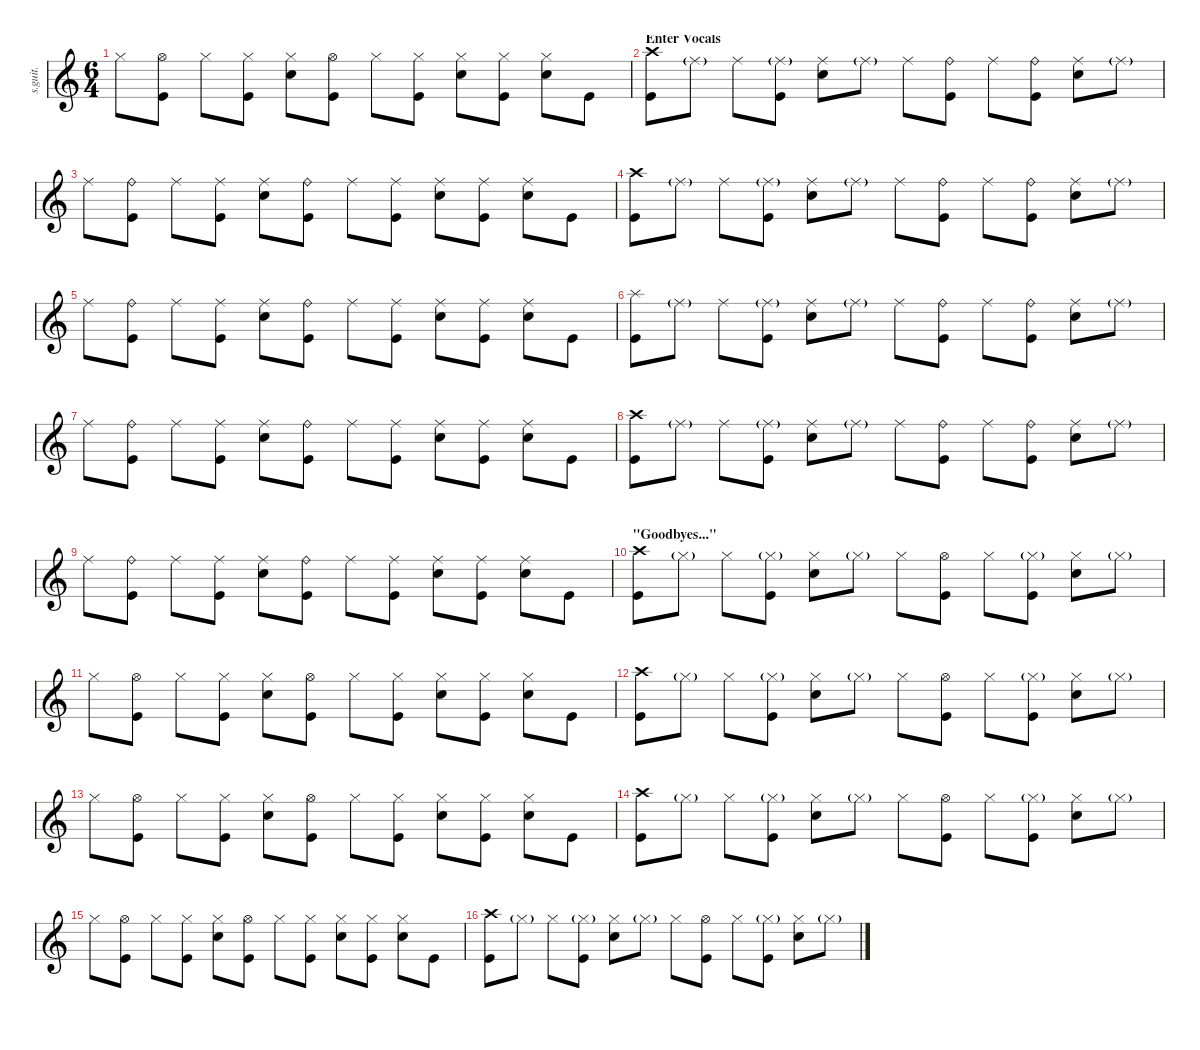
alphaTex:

\defaultSystemsLayout 4
\hideDynamics
\bracketExtendMode nobrackets
\track ("Steve Lamos" "s.guit.") {instrument percussion}
\staff {score}
\articulation defaults
\ts (6 4)
\tempo (144 hide)
\clef g2
\ks c "Hi-Hat (closed)".8{lyrics (0 "") lyrics (1 "") lyrics (2 "") lyrics (3 "") lyrics (4 "") dy mf}
("Hi-Hat (open)" "Kick (hit)").8{lyrics (0 "") lyrics (1 "") lyrics (2 "") lyrics (3 "") lyrics (4 "")} "Hi-Hat (closed)".8{lyrics (0 "") lyrics (1 "") lyrics (2 "") lyrics (3 "") lyrics (4 "")} ("Hi-Hat (closed)" "Kick (hit)").8{lyrics (0 "") lyrics (1 "") lyrics (2 "") lyrics (3 "") lyrics (4 "")} ("Hi-Hat (closed)" "Snare (hit) 2").8{lyrics (0 "") lyrics (1 "") lyrics (2 "") lyrics (3 "") lyrics (4 "")} ("Hi-Hat (open)" "Kick (hit)").8{lyrics (0 "") lyrics (1 "") lyrics (2 "") lyrics (3 "") lyrics (4 "")} "Hi-Hat (closed)".8{lyrics (0 "") lyrics (1 "") lyrics (2 "") lyrics (3 "") lyrics (4 "")} ("Hi-Hat (closed)" "Kick (hit)").8{lyrics (0 "") lyrics (1 "") lyrics (2 "") lyrics (3 "") lyrics (4 "")} ("Hi-Hat (closed)" "Snare (hit) 2").8{lyrics (0 "") lyrics (1 "") lyrics (2 "") lyrics (3 "") lyrics (4 "")} ("Hi-Hat (closed)" "Kick (hit)").8{lyrics (0 "") lyrics (1 "") lyrics (2 "") lyrics (3 "") lyrics (4 "") dy f} ("Hi-Hat (closed)" "Snare (hit) 2").8{lyrics (0 "") lyrics (1 "") lyrics (2 "") lyrics (3 "") lyrics (4 "")} "Kick (hit)".8{lyrics (0 "") lyrics (1 "") lyrics (2 "") lyrics (3 "") lyrics (4 "")} |
\section ("" "Enter Vocals")
("Crash high (hit)" "Kick (hit)").8{lyrics (0 "") lyrics (1 "") lyrics (2 "") lyrics (3 "") lyrics (4 "") dy mf} "Ride (middle)"{g}.8{lyrics (0 "") lyrics (1 "") lyrics (2 "") lyrics (3 "") lyrics (4 "") dy ff} "Ride (middle)".8{lyrics (0 "") lyrics (1 "") lyrics (2 "") lyrics (3 "") lyrics (4 "") dy mf} ("Ride (middle)"{g} "Kick (hit)").8{lyrics (0 "") lyrics (1 "") lyrics (2 "") lyrics (3 "") lyrics (4 "")} ("Ride (middle)" "Snare (hit) 2").8{lyrics (0 "") lyrics (1 "") lyrics (2 "") lyrics (3 "") lyrics (4 "")} "Ride (middle)"{g}.8{lyrics (0 "") lyrics (1 "") lyrics (2 "") lyrics (3 "") lyrics (4 "") dy ff} "Ride (middle)".8{lyrics (0 "") lyrics (1 "") lyrics (2 "") lyrics (3 "") lyrics (4 "") dy mf} ("Ride (bell)" "Kick (hit)").8{lyrics (0 "") lyrics (1 "") lyrics (2 "") lyrics (3 "") lyrics (4 "")} "Ride (middle)".8{lyrics (0 "") lyrics (1 "") lyrics (2 "") lyrics (3 "") lyrics (4 "")} ("Ride (bell)" "Kick (hit)").8{lyrics (0 "") lyrics (1 "") lyrics (2 "") lyrics (3 "") lyrics (4 "") dy f} ("Ride (middle)" "Snare (hit) 2").8{lyrics (0 "") lyrics (1 "") lyrics (2 "") lyrics (3 "") lyrics (4 "") dy mf} "Ride (middle)"{g}.8{lyrics (0 "") lyrics (1 "") lyrics (2 "") lyrics (3 "") lyrics (4 "") dy ff} |
"Ride (middle)".8{lyrics (0 "") lyrics (1 "") lyrics (2 "") lyrics (3 "") lyrics (4 "") dy mf} ("Ride (bell)" "Kick (hit)").8{lyrics (0 "") lyrics (1 "") lyrics (2 "") lyrics (3 "") lyrics (4 "")} "Ride (middle)".8{lyrics (0 "") lyrics (1 "") lyrics (2 "") lyrics (3 "") lyrics (4 "")} ("Ride (middle)" "Kick (hit)").8{lyrics (0 "") lyrics (1 "") lyrics (2 "") lyrics (3 "") lyrics (4 "")} ("Ride (middle)" "Snare (hit) 2").8{lyrics (0 "") lyrics (1 "") lyrics (2 "") lyrics (3 "") lyrics (4 "")} ("Ride (bell)" "Kick (hit)").8{lyrics (0 "") lyrics (1 "") lyrics (2 "") lyrics (3 "") lyrics (4 "") dy f} "Ride (middle)".8{lyrics (0 "") lyrics (1 "") lyrics (2 "") lyrics (3 "") lyrics (4 "") dy mf} ("Ride (middle)" "Kick (hit)").8{lyrics (0 "") lyrics (1 "") lyrics (2 "") lyrics (3 "") lyrics (4 "")} ("Ride (middle)" "Snare (hit) 2").8{lyrics (0 "") lyrics (1 "") lyrics (2 "") lyrics (3 "") lyrics (4 "")} ("Ride (middle)" "Kick (hit)").8{lyrics (0 "") lyrics (1 "") lyrics (2 "") lyrics (3 "") lyrics (4 "") dy f} ("Ride (middle)" "Snare (hit) 2").8{lyrics (0 "") lyrics (1 "") lyrics (2 "") lyrics (3 "") lyrics (4 "")} "Kick (hit)".8{lyrics (0 "") lyrics (1 "") lyrics (2 "") lyrics (3 "") lyrics (4 "")} |
("Crash high (hit)" "Kick (hit)").8{lyrics (0 "") lyrics (1 "") lyrics (2 "") lyrics (3 "") lyrics (4 "") dy mf} "Ride (middle)"{g}.8{lyrics (0 "") lyrics (1 "") lyrics (2 "") lyrics (3 "") lyrics (4 "") dy ff} "Ride (middle)".8{lyrics (0 "") lyrics (1 "") lyrics (2 "") lyrics (3 "") lyrics (4 "") dy mf} ("Ride (middle)"{g} "Kick (hit)").8{lyrics (0 "") lyrics (1 "") lyrics (2 "") lyrics (3 "") lyrics (4 "")} ("Ride (middle)" "Snare (hit) 2").8{lyrics (0 "") lyrics (1 "") lyrics (2 "") lyrics (3 "") lyrics (4 "")} "Ride (middle)"{g}.8{lyrics (0 "") lyrics (1 "") lyrics (2 "") lyrics (3 "") lyrics (4 "") dy ff} "Ride (middle)".8{lyrics (0 "") lyrics (1 "") lyrics (2 "") lyrics (3 "") lyrics (4 "") dy mf} ("Ride (bell)" "Kick (hit)").8{lyrics (0 "") lyrics (1 "") lyrics (2 "") lyrics (3 "") lyrics (4 "")} "Ride (middle)".8{lyrics (0 "") lyrics (1 "") lyrics (2 "") lyrics (3 "") lyrics (4 "")} ("Ride (bell)" "Kick (hit)").8{lyrics (0 "") lyrics (1 "") lyrics (2 "") lyrics (3 "") lyrics (4 "") dy f} ("Ride (middle)" "Snare (hit) 2").8{lyrics (0 "") lyrics (1 "") lyrics (2 "") lyrics (3 "") lyrics (4 "") dy mf} "Ride (middle)"{g}.8{lyrics (0 "") lyrics (1 "") lyrics (2 "") lyrics (3 "") lyrics (4 "") dy ff} |
"Ride (middle)".8{lyrics (0 "") lyrics (1 "") lyrics (2 "") lyrics (3 "") lyrics (4 "") dy mf} ("Ride (bell)" "Kick (hit)").8{lyrics (0 "") lyrics (1 "") lyrics (2 "") lyrics (3 "") lyrics (4 "")} "Ride (middle)".8{lyrics (0 "") lyrics (1 "") lyrics (2 "") lyrics (3 "") lyrics (4 "")} ("Ride (middle)" "Kick (hit)").8{lyrics (0 "") lyrics (1 "") lyrics (2 "") lyrics (3 "") lyrics (4 "")} ("Ride (middle)" "Snare (hit) 2").8{lyrics (0 "") lyrics (1 "") lyrics (2 "") lyrics (3 "") lyrics (4 "")} ("Ride (bell)" "Kick (hit)").8{lyrics (0 "") lyrics (1 "") lyrics (2 "") lyrics (3 "") lyrics (4 "") dy f} "Ride (middle)".8{lyrics (0 "") lyrics (1 "") lyrics (2 "") lyrics (3 "") lyrics (4 "") dy mf} ("Ride (middle)" "Kick (hit)").8{lyrics (0 "") lyrics (1 "") lyrics (2 "") lyrics (3 "") lyrics (4 "")} ("Ride (middle)" "Snare (hit) 2").8{lyrics (0 "") lyrics (1 "") lyrics (2 "") lyrics (3 "") lyrics (4 "")} ("Ride (middle)" "Kick (hit)").8{lyrics (0 "") lyrics (1 "") lyrics (2 "") lyrics (3 "") lyrics (4 "") dy f} ("Ride (middle)" "Snare (hit) 2").8{lyrics (0 "") lyrics (1 "") lyrics (2 "") lyrics (3 "") lyrics (4 "")} "Kick (hit)".8{lyrics (0 "") lyrics (1 "") lyrics (2 "") lyrics (3 "") lyrics (4 "")} |
("Splash (hit)" "Kick (hit)").8{lyrics (0 "") lyrics (1 "") lyrics (2 "") lyrics (3 "") lyrics (4 "") dy mf} "Ride (middle)"{g}.8{lyrics (0 "") lyrics (1 "") lyrics (2 "") lyrics (3 "") lyrics (4 "") dy ff} "Ride (middle)".8{lyrics (0 "") lyrics (1 "") lyrics (2 "") lyrics (3 "") lyrics (4 "") dy mf} ("Ride (middle)"{g} "Kick (hit)").8{lyrics (0 "") lyrics (1 "") lyrics (2 "") lyrics (3 "") lyrics (4 "")} ("Ride (middle)" "Snare (hit) 2").8{lyrics (0 "") lyrics (1 "") lyrics (2 "") lyrics (3 "") lyrics (4 "")} "Ride (middle)"{g}.8{lyrics (0 "") lyrics (1 "") lyrics (2 "") lyrics (3 "") lyrics (4 "") dy ff} "Ride (middle)".8{lyrics (0 "") lyrics (1 "") lyrics (2 "") lyrics (3 "") lyrics (4 "") dy mf} ("Ride (bell)" "Kick (hit)").8{lyrics (0 "") lyrics (1 "") lyrics (2 "") lyrics (3 "") lyrics (4 "")} "Ride (middle)".8{lyrics (0 "") lyrics (1 "") lyrics (2 "") lyrics (3 "") lyrics (4 "")} ("Ride (bell)" "Kick (hit)").8{lyrics (0 "") lyrics (1 "") lyrics (2 "") lyrics (3 "") lyrics (4 "") dy f} ("Ride (middle)" "Snare (hit) 2").8{lyrics (0 "") lyrics (1 "") lyrics (2 "") lyrics (3 "") lyrics (4 "") dy mf} "Ride (middle)"{g}.8{lyrics (0 "") lyrics (1 "") lyrics (2 "") lyrics (3 "") lyrics (4 "") dy ff} |
"Ride (middle)".8{lyrics (0 "") lyrics (1 "") lyrics (2 "") lyrics (3 "") lyrics (4 "") dy mf} ("Ride (bell)" "Kick (hit)").8{lyrics (0 "") lyrics (1 "") lyrics (2 "") lyrics (3 "") lyrics (4 "")} "Ride (middle)".8{lyrics (0 "") lyrics (1 "") lyrics (2 "") lyrics (3 "") lyrics (4 "")} ("Ride (middle)" "Kick (hit)").8{lyrics (0 "") lyrics (1 "") lyrics (2 "") lyrics (3 "") lyrics (4 "")} ("Ride (middle)" "Snare (hit) 2").8{lyrics (0 "") lyrics (1 "") lyrics (2 "") lyrics (3 "") lyrics (4 "")} ("Ride (bell)" "Kick (hit)").8{lyrics (0 "") lyrics (1 "") lyrics (2 "") lyrics (3 "") lyrics (4 "") dy f} "Ride (middle)".8{lyrics (0 "") lyrics (1 "") lyrics (2 "") lyrics (3 "") lyrics (4 "") dy mf} ("Ride (middle)" "Kick (hit)").8{lyrics (0 "") lyrics (1 "") lyrics (2 "") lyrics (3 "") lyrics (4 "")} ("Ride (middle)" "Snare (hit) 2").8{lyrics (0 "") lyrics (1 "") lyrics (2 "") lyrics (3 "") lyrics (4 "")} ("Ride (middle)" "Kick (hit)").8{lyrics (0 "") lyrics (1 "") lyrics (2 "") lyrics (3 "") lyrics (4 "") dy f} ("Ride (middle)" "Snare (hit) 2").8{lyrics (0 "") lyrics (1 "") lyrics (2 "") lyrics (3 "") lyrics (4 "")} "Kick (hit)".8{lyrics (0 "") lyrics (1 "") lyrics (2 "") lyrics (3 "") lyrics (4 "")} |
("Crash high (hit)" "Kick (hit)").8{lyrics (0 "") lyrics (1 "") lyrics (2 "") lyrics (3 "") lyrics (4 "") dy mf} "Ride (middle)"{g}.8{lyrics (0 "") lyrics (1 "") lyrics (2 "") lyrics (3 "") lyrics (4 "") dy ff} "Ride (middle)".8{lyrics (0 "") lyrics (1 "") lyrics (2 "") lyrics (3 "") lyrics (4 "") dy mf} ("Ride (middle)"{g} "Kick (hit)").8{lyrics (0 "") lyrics (1 "") lyrics (2 "") lyrics (3 "") lyrics (4 "")} ("Ride (middle)" "Snare (hit) 2").8{lyrics (0 "") lyrics (1 "") lyrics (2 "") lyrics (3 "") lyrics (4 "")} "Ride (middle)"{g}.8{lyrics (0 "") lyrics (1 "") lyrics (2 "") lyrics (3 "") lyrics (4 "") dy ff} "Ride (middle)".8{lyrics (0 "") lyrics (1 "") lyrics (2 "") lyrics (3 "") lyrics (4 "") dy mf} ("Ride (bell)" "Kick (hit)").8{lyrics (0 "") lyrics (1 "") lyrics (2 "") lyrics (3 "") lyrics (4 "")} "Ride (middle)".8{lyrics (0 "") lyrics (1 "") lyrics (2 "") lyrics (3 "") lyrics (4 "")} ("Ride (bell)" "Kick (hit)").8{lyrics (0 "") lyrics (1 "") lyrics (2 "") lyrics (3 "") lyrics (4 "") dy f} ("Ride (middle)" "Snare (hit) 2").8{lyrics (0 "") lyrics (1 "") lyrics (2 "") lyrics (3 "") lyrics (4 "") dy mf} "Ride (middle)"{g}.8{lyrics (0 "") lyrics (1 "") lyrics (2 "") lyrics (3 "") lyrics (4 "") dy ff} |
"Ride (middle)".8{lyrics (0 "") lyrics (1 "") lyrics (2 "") lyrics (3 "") lyrics (4 "") dy mf} ("Ride (bell)" "Kick (hit)").8{lyrics (0 "") lyrics (1 "") lyrics (2 "") lyrics (3 "") lyrics (4 "")} "Ride (middle)".8{lyrics (0 "") lyrics (1 "") lyrics (2 "") lyrics (3 "") lyrics (4 "")} ("Ride (middle)" "Kick (hit)").8{lyrics (0 "") lyrics (1 "") lyrics (2 "") lyrics (3 "") lyrics (4 "")} ("Ride (middle)" "Snare (hit) 2").8{lyrics (0 "") lyrics (1 "") lyrics (2 "") lyrics (3 "") lyrics (4 "")} ("Ride (bell)" "Kick (hit)").8{lyrics (0 "") lyrics (1 "") lyrics (2 "") lyrics (3 "") lyrics (4 "") dy f} "Ride (middle)".8{lyrics (0 "") lyrics (1 "") lyrics (2 "") lyrics (3 "") lyrics (4 "") dy mf} ("Ride (middle)" "Kick (hit)").8{lyrics (0 "") lyrics (1 "") lyrics (2 "") lyrics (3 "") lyrics (4 "")} ("Ride (middle)" "Snare (hit) 2").8{lyrics (0 "") lyrics (1 "") lyrics (2 "") lyrics (3 "") lyrics (4 "")} ("Ride (middle)" "Kick (hit)").8{lyrics (0 "") lyrics (1 "") lyrics (2 "") lyrics (3 "") lyrics (4 "") dy f} ("Ride (middle)" "Snare (hit) 2").8{lyrics (0 "") lyrics (1 "") lyrics (2 "") lyrics (3 "") lyrics (4 "")} "Kick (hit)".8{lyrics (0 "") lyrics (1 "") lyrics (2 "") lyrics (3 "") lyrics (4 "")} |
\section ("" "\"Goodbyes...\"")
("Crash high (hit)" "Kick (hit)").8{lyrics (0 "") lyrics (1 "") lyrics (2 "") lyrics (3 "") lyrics (4 "") dy mf} "Hi-Hat (closed)"{g}.8{lyrics (0 "") lyrics (1 "") lyrics (2 "") lyrics (3 "") lyrics (4 "") dy ff} "Hi-Hat (closed)".8{lyrics (0 "") lyrics (1 "") lyrics (2 "") lyrics (3 "") lyrics (4 "") dy mf} ("Hi-Hat (closed)"{g} "Kick (hit)").8{lyrics (0 "") lyrics (1 "") lyrics (2 "") lyrics (3 "") lyrics (4 "")} ("Hi-Hat (closed)" "Snare (hit) 2").8{lyrics (0 "") lyrics (1 "") lyrics (2 "") lyrics (3 "") lyrics (4 "")} "Hi-Hat (closed)"{g}.8{lyrics (0 "") lyrics (1 "") lyrics (2 "") lyrics (3 "") lyrics (4 "") dy ff} "Hi-Hat (closed)".8{lyrics (0 "") lyrics (1 "") lyrics (2 "") lyrics (3 "") lyrics (4 "") dy mf} ("Hi-Hat (open)" "Kick (hit)").8{lyrics (0 "") lyrics (1 "") lyrics (2 "") lyrics (3 "") lyrics (4 "")} "Hi-Hat (closed)".8{lyrics (0 "") lyrics (1 "") lyrics (2 "") lyrics (3 "") lyrics (4 "")} ("Hi-Hat (closed)"{g} "Kick (hit)").8{lyrics (0 "") lyrics (1 "") lyrics (2 "") lyrics (3 "") lyrics (4 "")} ("Hi-Hat (closed)" "Snare (hit) 2").8{lyrics (0 "") lyrics (1 "") lyrics (2 "") lyrics (3 "") lyrics (4 "")} "Hi-Hat (closed)"{g}.8{lyrics (0 "") lyrics (1 "") lyrics (2 "") lyrics (3 "") lyrics (4 "") dy ff} |
"Hi-Hat (closed)".8{lyrics (0 "") lyrics (1 "") lyrics (2 "") lyrics (3 "") lyrics (4 "") dy mf} ("Hi-Hat (open)" "Kick (hit)").8{lyrics (0 "") lyrics (1 "") lyrics (2 "") lyrics (3 "") lyrics (4 "")} "Hi-Hat (closed)".8{lyrics (0 "") lyrics (1 "") lyrics (2 "") lyrics (3 "") lyrics (4 "")} ("Hi-Hat (closed)" "Kick (hit)").8{lyrics (0 "") lyrics (1 "") lyrics (2 "") lyrics (3 "") lyrics (4 "")} ("Hi-Hat (closed)" "Snare (hit) 2").8{lyrics (0 "") lyrics (1 "") lyrics (2 "") lyrics (3 "") lyrics (4 "")} ("Hi-Hat (open)" "Kick (hit)").8{lyrics (0 "") lyrics (1 "") lyrics (2 "") lyrics (3 "") lyrics (4 "")} "Hi-Hat (closed)".8{lyrics (0 "") lyrics (1 "") lyrics (2 "") lyrics (3 "") lyrics (4 "")} ("Hi-Hat (closed)" "Kick (hit)").8{lyrics (0 "") lyrics (1 "") lyrics (2 "") lyrics (3 "") lyrics (4 "")} ("Hi-Hat (closed)" "Snare (hit) 2").8{lyrics (0 "") lyrics (1 "") lyrics (2 "") lyrics (3 "") lyrics (4 "")} ("Hi-Hat (closed)" "Kick (hit)").8{lyrics (0 "") lyrics (1 "") lyrics (2 "") lyrics (3 "") lyrics (4 "") dy f} ("Hi-Hat (closed)" "Snare (hit) 2").8{lyrics (0 "") lyrics (1 "") lyrics (2 "") lyrics (3 "") lyrics (4 "")} "Kick (hit)".8{lyrics (0 "") lyrics (1 "") lyrics (2 "") lyrics (3 "") lyrics (4 "")} |
("Crash high (hit)" "Kick (hit)").8{lyrics (0 "") lyrics (1 "") lyrics (2 "") lyrics (3 "") lyrics (4 "") dy mf} "Hi-Hat (closed)"{g}.8{lyrics (0 "") lyrics (1 "") lyrics (2 "") lyrics (3 "") lyrics (4 "") dy ff} "Hi-Hat (closed)".8{lyrics (0 "") lyrics (1 "") lyrics (2 "") lyrics (3 "") lyrics (4 "") dy mf} ("Hi-Hat (closed)"{g} "Kick (hit)").8{lyrics (0 "") lyrics (1 "") lyrics (2 "") lyrics (3 "") lyrics (4 "")} ("Hi-Hat (closed)" "Snare (hit) 2").8{lyrics (0 "") lyrics (1 "") lyrics (2 "") lyrics (3 "") lyrics (4 "")} "Hi-Hat (closed)"{g}.8{lyrics (0 "") lyrics (1 "") lyrics (2 "") lyrics (3 "") lyrics (4 "") dy ff} "Hi-Hat (closed)".8{lyrics (0 "") lyrics (1 "") lyrics (2 "") lyrics (3 "") lyrics (4 "") dy mf} ("Hi-Hat (open)" "Kick (hit)").8{lyrics (0 "") lyrics (1 "") lyrics (2 "") lyrics (3 "") lyrics (4 "")} "Hi-Hat (closed)".8{lyrics (0 "") lyrics (1 "") lyrics (2 "") lyrics (3 "") lyrics (4 "")} ("Hi-Hat (closed)"{g} "Kick (hit)").8{lyrics (0 "") lyrics (1 "") lyrics (2 "") lyrics (3 "") lyrics (4 "")} ("Hi-Hat (closed)" "Snare (hit) 2").8{lyrics (0 "") lyrics (1 "") lyrics (2 "") lyrics (3 "") lyrics (4 "")} "Hi-Hat (closed)"{g}.8{lyrics (0 "") lyrics (1 "") lyrics (2 "") lyrics (3 "") lyrics (4 "") dy ff} |
"Hi-Hat (closed)".8{lyrics (0 "") lyrics (1 "") lyrics (2 "") lyrics (3 "") lyrics (4 "") dy mf} ("Hi-Hat (open)" "Kick (hit)").8{lyrics (0 "") lyrics (1 "") lyrics (2 "") lyrics (3 "") lyrics (4 "")} "Hi-Hat (closed)".8{lyrics (0 "") lyrics (1 "") lyrics (2 "") lyrics (3 "") lyrics (4 "")} ("Hi-Hat (closed)" "Kick (hit)").8{lyrics (0 "") lyrics (1 "") lyrics (2 "") lyrics (3 "") lyrics (4 "")} ("Hi-Hat (closed)" "Snare (hit) 2").8{lyrics (0 "") lyrics (1 "") lyrics (2 "") lyrics (3 "") lyrics (4 "")} ("Hi-Hat (open)" "Kick (hit)").8{lyrics (0 "") lyrics (1 "") lyrics (2 "") lyrics (3 "") lyrics (4 "")} "Hi-Hat (closed)".8{lyrics (0 "") lyrics (1 "") lyrics (2 "") lyrics (3 "") lyrics (4 "")} ("Hi-Hat (closed)" "Kick (hit)").8{lyrics (0 "") lyrics (1 "") lyrics (2 "") lyrics (3 "") lyrics (4 "")} ("Hi-Hat (closed)" "Snare (hit) 2").8{lyrics (0 "") lyrics (1 "") lyrics (2 "") lyrics (3 "") lyrics (4 "")} ("Hi-Hat (closed)" "Kick (hit)").8{lyrics (0 "") lyrics (1 "") lyrics (2 "") lyrics (3 "") lyrics (4 "") dy f} ("Hi-Hat (closed)" "Snare (hit) 2").8{lyrics (0 "") lyrics (1 "") lyrics (2 "") lyrics (3 "") lyrics (4 "")} "Kick (hit)".8{lyrics (0 "") lyrics (1 "") lyrics (2 "") lyrics (3 "") lyrics (4 "")} |
("Crash high (hit)" "Kick (hit)").8{lyrics (0 "") lyrics (1 "") lyrics (2 "") lyrics (3 "") lyrics (4 "") dy mf} "Hi-Hat (closed)"{g}.8{lyrics (0 "") lyrics (1 "") lyrics (2 "") lyrics (3 "") lyrics (4 "") dy ff} "Hi-Hat (closed)".8{lyrics (0 "") lyrics (1 "") lyrics (2 "") lyrics (3 "") lyrics (4 "") dy mf} ("Hi-Hat (closed)"{g} "Kick (hit)").8{lyrics (0 "") lyrics (1 "") lyrics (2 "") lyrics (3 "") lyrics (4 "")} ("Hi-Hat (closed)" "Snare (hit) 2").8{lyrics (0 "") lyrics (1 "") lyrics (2 "") lyrics (3 "") lyrics (4 "")} "Hi-Hat (closed)"{g}.8{lyrics (0 "") lyrics (1 "") lyrics (2 "") lyrics (3 "") lyrics (4 "") dy ff} "Hi-Hat (closed)".8{lyrics (0 "") lyrics (1 "") lyrics (2 "") lyrics (3 "") lyrics (4 "") dy mf} ("Hi-Hat (open)" "Kick (hit)").8{lyrics (0 "") lyrics (1 "") lyrics (2 "") lyrics (3 "") lyrics (4 "")} "Hi-Hat (closed)".8{lyrics (0 "") lyrics (1 "") lyrics (2 "") lyrics (3 "") lyrics (4 "")} ("Hi-Hat (closed)"{g} "Kick (hit)").8{lyrics (0 "") lyrics (1 "") lyrics (2 "") lyrics (3 "") lyrics (4 "")} ("Hi-Hat (closed)" "Snare (hit) 2").8{lyrics (0 "") lyrics (1 "") lyrics (2 "") lyrics (3 "") lyrics (4 "")} "Hi-Hat (closed)"{g}.8{lyrics (0 "") lyrics (1 "") lyrics (2 "") lyrics (3 "") lyrics (4 "") dy ff} |
"Hi-Hat (closed)".8{lyrics (0 "") lyrics (1 "") lyrics (2 "") lyrics (3 "") lyrics (4 "") dy mf} ("Hi-Hat (open)" "Kick (hit)").8{lyrics (0 "") lyrics (1 "") lyrics (2 "") lyrics (3 "") lyrics (4 "")} "Hi-Hat (closed)".8{lyrics (0 "") lyrics (1 "") lyrics (2 "") lyrics (3 "") lyrics (4 "")} ("Hi-Hat (closed)" "Kick (hit)").8{lyrics (0 "") lyrics (1 "") lyrics (2 "") lyrics (3 "") lyrics (4 "")} ("Hi-Hat (closed)" "Snare (hit) 2").8{lyrics (0 "") lyrics (1 "") lyrics (2 "") lyrics (3 "") lyrics (4 "")} ("Hi-Hat (open)" "Kick (hit)").8{lyrics (0 "") lyrics (1 "") lyrics (2 "") lyrics (3 "") lyrics (4 "")} "Hi-Hat (closed)".8{lyrics (0 "") lyrics (1 "") lyrics (2 "") lyrics (3 "") lyrics (4 "")} ("Hi-Hat (closed)" "Kick (hit)").8{lyrics (0 "") lyrics (1 "") lyrics (2 "") lyrics (3 "") lyrics (4 "")} ("Hi-Hat (closed)" "Snare (hit) 2").8{lyrics (0 "") lyrics (1 "") lyrics (2 "") lyrics (3 "") lyrics (4 "")} ("Hi-Hat (closed)" "Kick (hit)").8{lyrics (0 "") lyrics (1 "") lyrics (2 "") lyrics (3 "") lyrics (4 "") dy f} ("Hi-Hat (closed)" "Snare (hit) 2").8{lyrics (0 "") lyrics (1 "") lyrics (2 "") lyrics (3 "") lyrics (4 "")} "Kick (hit)".8{lyrics (0 "") lyrics (1 "") lyrics (2 "") lyrics (3 "") lyrics (4 "")} |
("Crash high (hit)" "Kick (hit)").8{lyrics (0 "") lyrics (1 "") lyrics (2 "") lyrics (3 "") lyrics (4 "") dy mf} "Hi-Hat (closed)"{g}.8{lyrics (0 "") lyrics (1 "") lyrics (2 "") lyrics (3 "") lyrics (4 "") dy ff} "Hi-Hat (closed)".8{lyrics (0 "") lyrics (1 "") lyrics (2 "") lyrics (3 "") lyrics (4 "") dy mf} ("Hi-Hat (closed)"{g} "Kick (hit)").8{lyrics (0 "") lyrics (1 "") lyrics (2 "") lyrics (3 "") lyrics (4 "")} ("Hi-Hat (closed)" "Snare (hit) 2").8{lyrics (0 "") lyrics (1 "") lyrics (2 "") lyrics (3 "") lyrics (4 "")} "Hi-Hat (closed)"{g}.8{lyrics (0 "") lyrics (1 "") lyrics (2 "") lyrics (3 "") lyrics (4 "") dy ff} "Hi-Hat (closed)".8{lyrics (0 "") lyrics (1 "") lyrics (2 "") lyrics (3 "") lyrics (4 "") dy mf} ("Hi-Hat (open)" "Kick (hit)").8{lyrics (0 "") lyrics (1 "") lyrics (2 "") lyrics (3 "") lyrics (4 "")} "Hi-Hat (closed)".8{lyrics (0 "") lyrics (1 "") lyrics (2 "") lyrics (3 "") lyrics (4 "")} ("Hi-Hat (closed)"{g} "Kick (hit)").8{lyrics (0 "") lyrics (1 "") lyrics (2 "") lyrics (3 "") lyrics (4 "")} ("Hi-Hat (closed)" "Snare (hit) 2").8{lyrics (0 "") lyrics (1 "") lyrics (2 "") lyrics (3 "") lyrics (4 "")} "Hi-Hat (closed)"{g}.8{lyrics (0 "") lyrics (1 "") lyrics (2 "") lyrics (3 "") lyrics (4 "") dy ff}
